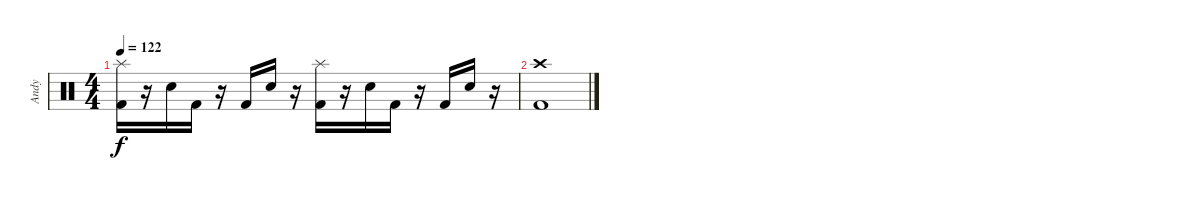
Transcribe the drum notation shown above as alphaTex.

\track ("Andy" "Andy") {instrument percussion}
\staff {score}
\articulation defaults
\ts (4 4)
\tempo 122
\clef neutral
\ks c
("Splash (hit)" "Kick (hit) 2").16{dy f} r.16 "Snare (hit) 2".16 "Kick (hit) 2".16 r.16 "Kick (hit) 2".16 "Snare (hit) 2".16 r.16 ("Splash (hit)" "Kick (hit) 2").16 r.16 "Snare (hit) 2".16 "Kick (hit) 2".16 r.16 "Kick (hit) 2".16 "Snare (hit) 2".16 r.16 |
("Crash high (hit)" "Kick (hit) 2").1
